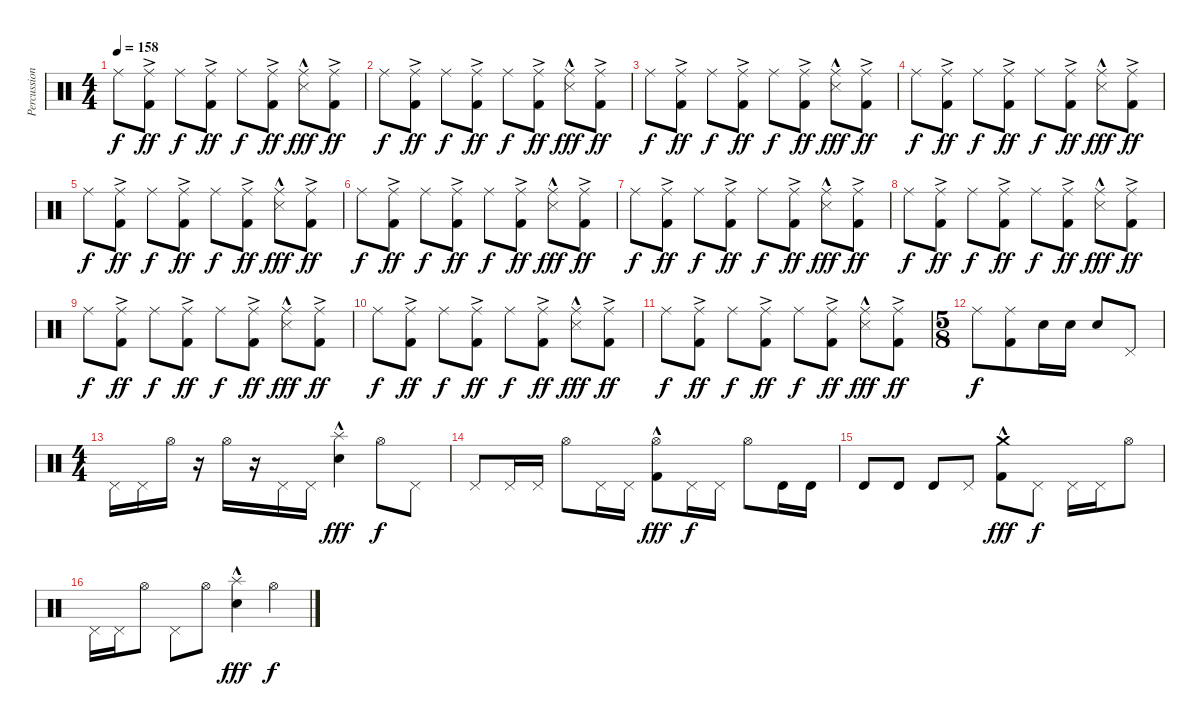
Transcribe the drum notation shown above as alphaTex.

\track ("Percussion" "Percussion") {instrument percussion}
\staff {score}
\articulation defaults
\ts (4 4)
\tempo 158
\clef neutral
\ks c "Ride (middle)".8{dy f}
("Ride (middle)"{ac} "Kick (hit) 2").8{dy ff} "Ride (middle)".8{dy f} ("Ride (middle)"{ac} "Kick (hit) 2").8{dy ff} "Ride (middle)".8{dy f} ("Ride (middle)"{ac} "Kick (hit) 2").8{dy ff} ("Ride (middle)" "Snare (side stick) 3"{hac}).8{dy fff} ("Ride (middle)"{ac} "Kick (hit) 2").8{dy ff} |
"Ride (middle)".8{dy f} ("Ride (middle)"{ac} "Kick (hit) 2").8{dy ff} "Ride (middle)".8{dy f} ("Ride (middle)"{ac} "Kick (hit) 2").8{dy ff} "Ride (middle)".8{dy f} ("Ride (middle)"{ac} "Kick (hit) 2").8{dy ff} ("Ride (middle)" "Snare (side stick) 3"{hac}).8{dy fff} ("Ride (middle)"{ac} "Kick (hit) 2").8{dy ff} |
"Ride (middle)".8{dy f} ("Ride (middle)"{ac} "Kick (hit) 2").8{dy ff} "Ride (middle)".8{dy f} ("Ride (middle)"{ac} "Kick (hit) 2").8{dy ff} "Ride (middle)".8{dy f} ("Ride (middle)"{ac} "Kick (hit) 2").8{dy ff} ("Ride (middle)" "Snare (side stick) 3"{hac}).8{dy fff} ("Ride (middle)"{ac} "Kick (hit) 2").8{dy ff} |
"Ride (middle)".8{dy f} ("Ride (middle)"{ac} "Kick (hit) 2").8{dy ff} "Ride (middle)".8{dy f} ("Ride (middle)"{ac} "Kick (hit) 2").8{dy ff} "Ride (middle)".8{dy f} ("Ride (middle)"{ac} "Kick (hit) 2").8{dy ff} ("Ride (middle)" "Snare (side stick) 3"{hac}).8{dy fff} ("Ride (middle)"{ac} "Kick (hit) 2").8{dy ff} |
"Ride (middle)".8{dy f} ("Ride (middle)"{ac} "Kick (hit) 2").8{dy ff} "Ride (middle)".8{dy f} ("Ride (middle)"{ac} "Kick (hit) 2").8{dy ff} "Ride (middle)".8{dy f} ("Ride (middle)"{ac} "Kick (hit) 2").8{dy ff} ("Ride (middle)" "Snare (side stick) 3"{hac}).8{dy fff} ("Ride (middle)"{ac} "Kick (hit) 2").8{dy ff} |
"Ride (middle)".8{dy f} ("Ride (middle)"{ac} "Kick (hit) 2").8{dy ff} "Ride (middle)".8{dy f} ("Ride (middle)"{ac} "Kick (hit) 2").8{dy ff} "Ride (middle)".8{dy f} ("Ride (middle)"{ac} "Kick (hit) 2").8{dy ff} ("Ride (middle)" "Snare (side stick) 3"{hac}).8{dy fff} ("Ride (middle)"{ac} "Kick (hit) 2").8{dy ff} |
"Ride (middle)".8{dy f} ("Ride (middle)"{ac} "Kick (hit) 2").8{dy ff} "Ride (middle)".8{dy f} ("Ride (middle)"{ac} "Kick (hit) 2").8{dy ff} "Ride (middle)".8{dy f} ("Ride (middle)"{ac} "Kick (hit) 2").8{dy ff} ("Ride (middle)" "Snare (side stick) 3"{hac}).8{dy fff} ("Ride (middle)"{ac} "Kick (hit) 2").8{dy ff} |
"Ride (middle)".8{dy f} ("Ride (middle)"{ac} "Kick (hit) 2").8{dy ff} "Ride (middle)".8{dy f} ("Ride (middle)"{ac} "Kick (hit) 2").8{dy ff} "Ride (middle)".8{dy f} ("Ride (middle)"{ac} "Kick (hit) 2").8{dy ff} ("Ride (middle)" "Snare (side stick) 3"{hac}).8{dy fff} ("Ride (middle)"{ac} "Kick (hit) 2").8{dy ff} |
"Ride (middle)".8{dy f} ("Ride (middle)"{ac} "Kick (hit) 2").8{dy ff} "Ride (middle)".8{dy f} ("Ride (middle)"{ac} "Kick (hit) 2").8{dy ff} "Ride (middle)".8{dy f} ("Ride (middle)"{ac} "Kick (hit) 2").8{dy ff} ("Ride (middle)" "Snare (side stick) 3"{hac}).8{dy fff} ("Ride (middle)"{ac} "Kick (hit) 2").8{dy ff} |
"Ride (middle)".8{dy f} ("Ride (middle)"{ac} "Kick (hit) 2").8{dy ff} "Ride (middle)".8{dy f} ("Ride (middle)"{ac} "Kick (hit) 2").8{dy ff} "Ride (middle)".8{dy f} ("Ride (middle)"{ac} "Kick (hit) 2").8{dy ff} ("Ride (middle)" "Snare (side stick) 3"{hac}).8{dy fff} ("Ride (middle)"{ac} "Kick (hit) 2").8{dy ff} |
"Ride (middle)".8{dy f} ("Ride (middle)"{ac} "Kick (hit) 2").8{dy ff} "Ride (middle)".8{dy f} ("Ride (middle)"{ac} "Kick (hit) 2").8{dy ff} "Ride (middle)".8{dy f} ("Ride (middle)"{ac} "Kick (hit) 2").8{dy ff} ("Ride (middle)" "Snare (side stick) 3"{hac}).8{dy fff} ("Ride (middle)"{ac} "Kick (hit) 2").8{dy ff} |
\ts (5 8)
"Ride (middle)".8{dy f} ("Ride (middle)" "Kick (hit) 2").8 "Electric Snare (hit)".16 "Electric Snare (hit)".16 "Electric Snare (hit)".8 "Pedal Hi-Hat (hit)".8 |
\ts (4 4)
"Pedal Hi-Hat (hit)".16 "Pedal Hi-Hat (hit)".16 "Hi-Hat (open)".16 r.16 "Hi-Hat (open)".16 r.16 "Pedal Hi-Hat (hit)".16 "Pedal Hi-Hat (hit)".16 ("Splash (hit)" "Electric Snare (hit)"{hac}).4{dy fff} "Hi-Hat (open)".8{dy f} "Pedal Hi-Hat (hit)".8 |
"Pedal Hi-Hat (hit)".8 "Pedal Hi-Hat (hit)".16 "Pedal Hi-Hat (hit)".16 "Hi-Hat (open)".8 "Pedal Hi-Hat (hit)".16 "Pedal Hi-Hat (hit)".16 ("Hi-Hat (open)" "Kick (hit) 2"{hac}).8{dy fff} "Pedal Hi-Hat (hit)".16{dy f} "Pedal Hi-Hat (hit)".16 "Hi-Hat (open)".8 "Timbale high (hit)".16 "Timbale high (hit)".16 |
"Timbale high (hit)".8 "Timbale high (hit)".8 "Timbale high (hit)".8 "Pedal Hi-Hat (hit)".8 ("Crash medium (hit)" "Kick (hit) 2"{hac}).8{dy fff} "Pedal Hi-Hat (hit)".8{dy f} "Pedal Hi-Hat (hit)".16 "Pedal Hi-Hat (hit)".16 "Hi-Hat (open)".8 |
"Pedal Hi-Hat (hit)".16 "Pedal Hi-Hat (hit)".16 "Hi-Hat (open)".8 "Pedal Hi-Hat (hit)".8 "Hi-Hat (open)".8 ("Splash (hit)" "Electric Snare (hit)"{hac}).4{dy fff} "Hi-Hat (open)".4{dy f}
